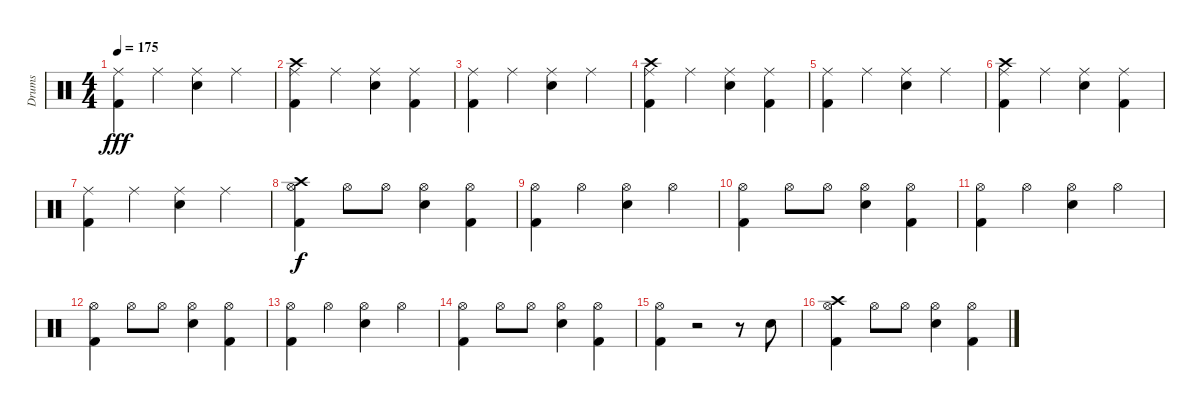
\track ("Drums" "Drums") {instrument percussion}
\staff {score}
\articulation defaults
\ts (4 4)
\tempo 175
\clef neutral
\ks c
("Ride (middle)" "Kick (hit) 2").4{dy fff} "Ride (middle)".4 ("Ride (middle)" "Snare (hit) 2").4 "Ride (middle)".4 |
("Crash high (hit)" "Ride (middle)" "Kick (hit) 2").4 "Ride (middle)".4 ("Ride (middle)" "Snare (hit) 2").4 ("Ride (middle)" "Kick (hit) 2").4 |
("Ride (middle)" "Kick (hit) 2").4 "Ride (middle)".4 ("Ride (middle)" "Snare (hit) 2").4 "Ride (middle)".4 |
("Crash high (hit)" "Ride (middle)" "Kick (hit) 2").4 "Ride (middle)".4 ("Ride (middle)" "Snare (hit) 2").4 ("Ride (middle)" "Kick (hit) 2").4 |
("Ride (middle)" "Kick (hit) 2").4 "Ride (middle)".4 ("Ride (middle)" "Snare (hit) 2").4 "Ride (middle)".4 |
("Crash high (hit)" "Ride (middle)" "Kick (hit) 2").4 "Ride (middle)".4 ("Ride (middle)" "Snare (hit) 2").4 ("Ride (middle)" "Kick (hit) 2").4 |
("Ride (middle)" "Kick (hit) 2").4 "Ride (middle)".4 ("Ride (middle)" "Snare (hit) 2").4 "Ride (middle)".4 |
("Hi-Hat (open)" "Crash high (hit)" "Kick (hit) 2").4{dy f} "Hi-Hat (open)".8 "Hi-Hat (open)".8 ("Hi-Hat (open)" "Snare (hit) 2").4 ("Hi-Hat (open)" "Kick (hit) 2").4 |
("Hi-Hat (open)" "Kick (hit) 2").4 "Hi-Hat (open)".4 ("Hi-Hat (open)" "Snare (hit) 2").4 "Hi-Hat (open)".4 |
("Hi-Hat (open)" "Kick (hit) 2").4 "Hi-Hat (open)".8 "Hi-Hat (open)".8 ("Hi-Hat (open)" "Snare (hit) 2").4 ("Hi-Hat (open)" "Kick (hit) 2").4 |
("Hi-Hat (open)" "Kick (hit) 2").4 "Hi-Hat (open)".4 ("Hi-Hat (open)" "Snare (hit) 2").4 "Hi-Hat (open)".4 |
("Hi-Hat (open)" "Kick (hit) 2").4 "Hi-Hat (open)".8 "Hi-Hat (open)".8 ("Hi-Hat (open)" "Snare (hit) 2").4 ("Hi-Hat (open)" "Kick (hit) 2").4 |
("Hi-Hat (open)" "Kick (hit) 2").4 "Hi-Hat (open)".4 ("Hi-Hat (open)" "Snare (hit) 2").4 "Hi-Hat (open)".4 |
("Hi-Hat (open)" "Kick (hit) 2").4 "Hi-Hat (open)".8 "Hi-Hat (open)".8 ("Hi-Hat (open)" "Snare (hit) 2").4 ("Hi-Hat (open)" "Kick (hit) 2").4 |
("Hi-Hat (open)"{pm} "Kick (hit) 2").4 r.2 r.8 "Snare (hit) 2".8 |
("Hi-Hat (open)" "Crash high (hit)" "Kick (hit) 2").4 "Hi-Hat (open)".8 "Hi-Hat (open)".8 ("Hi-Hat (open)" "Snare (hit) 2").4 ("Hi-Hat (open)" "Kick (hit) 2").4
